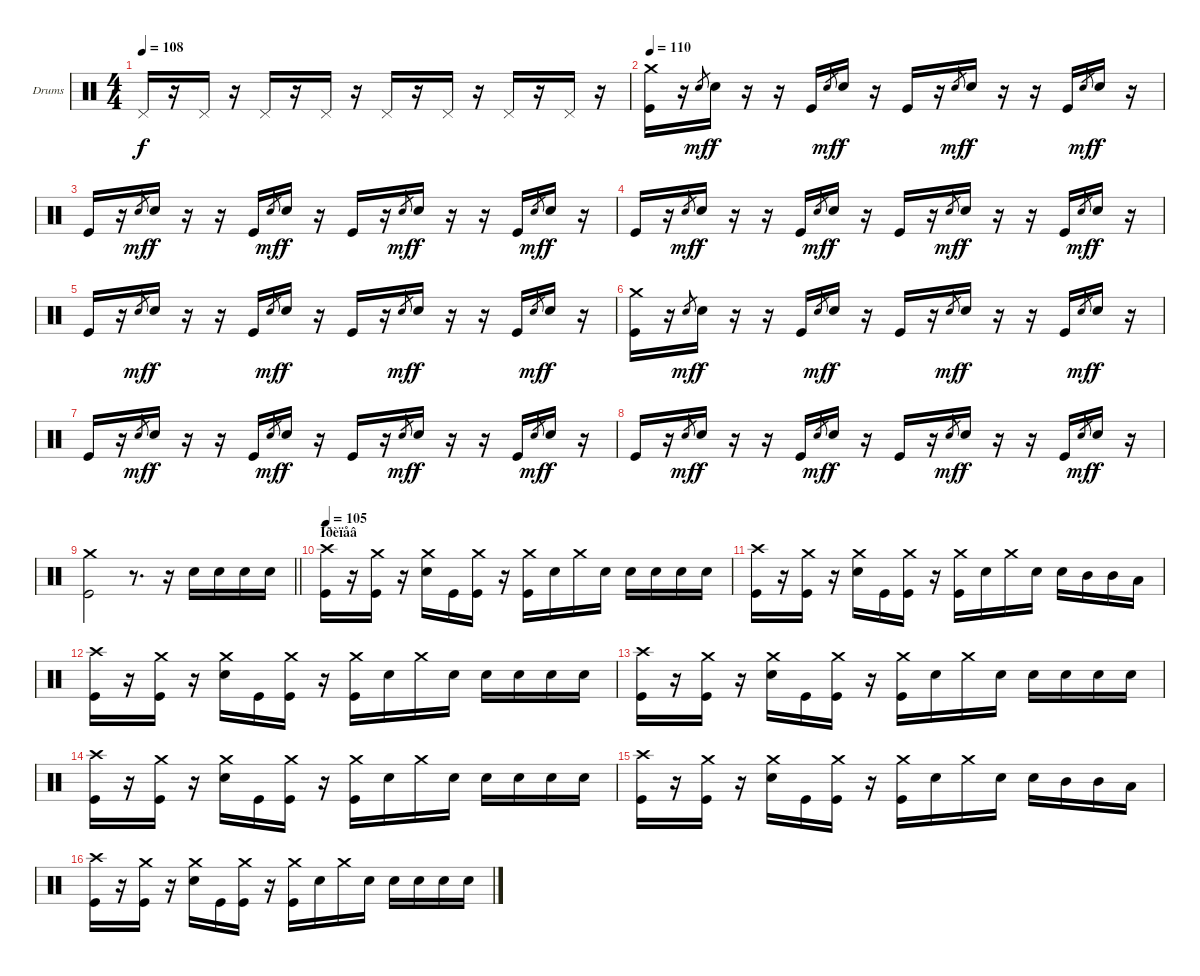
\bracketExtendMode groupsimilarinstruments
\firstSystemTrackNameOrientation horizontal
\otherSystemsTrackNameOrientation horizontal
\track ("Drumkit" "Drums") {instrument percussion}
\staff {score}
\articulation defaults
\ts (4 4)
\tempo 108
\clef neutral
\ks c "Pedal Hi-Hat (hit)".16{dy f}
r.16 "Pedal Hi-Hat (hit)".16 r.16 "Pedal Hi-Hat (hit)".16 r.16 "Pedal Hi-Hat (hit)".16 r.16 "Pedal Hi-Hat (hit)".16 r.16 "Pedal Hi-Hat (hit)".16 r.16 "Pedal Hi-Hat (hit)".16 r.16 "Pedal Hi-Hat (hit)".16 r.16 |
\tempo 110
("Crash medium (hit)" "Kick (hit)").16 r.16 "Snare (hit) 2".8{gr dy mf} "Snare (hit) 2".16{dy f} r.16 r.16 "Kick (hit)".16 "Snare (hit) 2".8{gr dy mf} "Snare (hit) 2".16{dy f} r.16 "Kick (hit)".16 r.16 "Snare (hit) 2".8{gr dy mf} "Snare (hit) 2".16{dy f} r.16 r.16 "Kick (hit)".16 "Snare (hit) 2".8{gr dy mf} "Snare (hit) 2".16{dy f} r.16 |
"Kick (hit)".16 r.16 "Snare (hit) 2".8{gr dy mf} "Snare (hit) 2".16{dy f} r.16 r.16 "Kick (hit)".16 "Snare (hit) 2".8{gr dy mf} "Snare (hit) 2".16{dy f} r.16 "Kick (hit)".16 r.16 "Snare (hit) 2".8{gr dy mf} "Snare (hit) 2".16{dy f} r.16 r.16 "Kick (hit)".16 "Snare (hit) 2".8{gr dy mf} "Snare (hit) 2".16{dy f} r.16 |
"Kick (hit)".16 r.16 "Snare (hit) 2".8{gr dy mf} "Snare (hit) 2".16{dy f} r.16 r.16 "Kick (hit)".16 "Snare (hit) 2".8{gr dy mf} "Snare (hit) 2".16{dy f} r.16 "Kick (hit)".16 r.16 "Snare (hit) 2".8{gr dy mf} "Snare (hit) 2".16{dy f} r.16 r.16 "Kick (hit)".16 "Snare (hit) 2".8{gr dy mf} "Snare (hit) 2".16{dy f} r.16 |
"Kick (hit)".16 r.16 "Snare (hit) 2".8{gr dy mf} "Snare (hit) 2".16{dy f} r.16 r.16 "Kick (hit)".16 "Snare (hit) 2".8{gr dy mf} "Snare (hit) 2".16{dy f} r.16 "Kick (hit)".16 r.16 "Snare (hit) 2".8{gr dy mf} "Snare (hit) 2".16{dy f} r.16 r.16 "Kick (hit)".16 "Snare (hit) 2".8{gr dy mf} "Snare (hit) 2".16{dy f} r.16 |
("Crash medium (hit)" "Kick (hit)").16 r.16 "Snare (hit) 2".8{gr dy mf} "Snare (hit) 2".16{dy f} r.16 r.16 "Kick (hit)".16 "Snare (hit) 2".8{gr dy mf} "Snare (hit) 2".16{dy f} r.16 "Kick (hit)".16 r.16 "Snare (hit) 2".8{gr dy mf} "Snare (hit) 2".16{dy f} r.16 r.16 "Kick (hit)".16 "Snare (hit) 2".8{gr dy mf} "Snare (hit) 2".16{dy f} r.16 |
"Kick (hit)".16 r.16 "Snare (hit) 2".8{gr dy mf} "Snare (hit) 2".16{dy f} r.16 r.16 "Kick (hit)".16 "Snare (hit) 2".8{gr dy mf} "Snare (hit) 2".16{dy f} r.16 "Kick (hit)".16 r.16 "Snare (hit) 2".8{gr dy mf} "Snare (hit) 2".16{dy f} r.16 r.16 "Kick (hit)".16 "Snare (hit) 2".8{gr dy mf} "Snare (hit) 2".16{dy f} r.16 |
"Kick (hit)".16 r.16 "Snare (hit) 2".8{gr dy mf} "Snare (hit) 2".16{dy f} r.16 r.16 "Kick (hit)".16 "Snare (hit) 2".8{gr dy mf} "Snare (hit) 2".16{dy f} r.16 "Kick (hit)".16 r.16 "Snare (hit) 2".8{gr dy mf} "Snare (hit) 2".16{dy f} r.16 r.16 "Kick (hit)".16 "Snare (hit) 2".8{gr dy mf} "Snare (hit) 2".16{dy f} r.16 |
\barLineRight lightlight
("Crash medium (hit)" "Kick (hit)").2 r.8{d} r.16 "Snare (hit) 2".16 "Snare (hit) 2".16 "Snare (hit) 2".16 "Snare (hit) 2".16 |
\section ("" "Ïðèïåâ")
\tempo 105
("Crash high (hit)" "Kick (hit)").16 r.16 ("Crash medium (hit)" "Kick (hit)").16 r.16 ("Crash medium (hit)" "Snare (hit) 2").16 "Kick (hit)".16 ("Crash medium (hit)" "Kick (hit)").16 r.16 ("Crash medium (hit)" "Kick (hit)").16 "Snare (hit) 2".16 "Crash medium (hit)".16 "Snare (hit) 2".16 "Snare (hit) 2".16 "Snare (hit) 2".16 "Snare (hit) 2".16 "Snare (hit) 2".16 |
("Crash high (hit)" "Kick (hit)").16 r.16 ("Crash medium (hit)" "Kick (hit)").16 r.16 ("Crash medium (hit)" "Snare (hit) 2").16 "Kick (hit)".16 ("Crash medium (hit)" "Kick (hit)").16 r.16 ("Crash medium (hit)" "Kick (hit)").16 "Snare (hit) 2".16 "Crash medium (hit)".16 "Snare (hit) 2".16 "Snare (hit) 2".16 "Mid Tom (hit)".16 "Mid Tom (hit)".16 "Low Tom (hit)".16 |
("Crash high (hit)" "Kick (hit)").16 r.16 ("Crash medium (hit)" "Kick (hit)").16 r.16 ("Crash medium (hit)" "Snare (hit) 2").16 "Kick (hit)".16 ("Crash medium (hit)" "Kick (hit)").16 r.16 ("Crash medium (hit)" "Kick (hit)").16 "Snare (hit) 2".16 "Crash medium (hit)".16 "Snare (hit) 2".16 "Snare (hit) 2".16 "Snare (hit) 2".16 "Snare (hit) 2".16 "Snare (hit) 2".16 |
("Crash high (hit)" "Kick (hit)").16 r.16 ("Crash medium (hit)" "Kick (hit)").16 r.16 ("Crash medium (hit)" "Snare (hit) 2").16 "Kick (hit)".16 ("Crash medium (hit)" "Kick (hit)").16 r.16 ("Crash medium (hit)" "Kick (hit)").16 "Snare (hit) 2".16 "Crash medium (hit)".16 "Snare (hit) 2".16 "Snare (hit) 2".16 "Snare (hit) 2".16 "Snare (hit) 2".16 "Snare (hit) 2".16 |
("Crash high (hit)" "Kick (hit)").16 r.16 ("Crash medium (hit)" "Kick (hit)").16 r.16 ("Crash medium (hit)" "Snare (hit) 2").16 "Kick (hit)".16 ("Crash medium (hit)" "Kick (hit)").16 r.16 ("Crash medium (hit)" "Kick (hit)").16 "Snare (hit) 2".16 "Crash medium (hit)".16 "Snare (hit) 2".16 "Snare (hit) 2".16 "Snare (hit) 2".16 "Snare (hit) 2".16 "Snare (hit) 2".16 |
("Crash high (hit)" "Kick (hit)").16 r.16 ("Crash medium (hit)" "Kick (hit)").16 r.16 ("Crash medium (hit)" "Snare (hit) 2").16 "Kick (hit)".16 ("Crash medium (hit)" "Kick (hit)").16 r.16 ("Crash medium (hit)" "Kick (hit)").16 "Snare (hit) 2".16 "Crash medium (hit)".16 "Snare (hit) 2".16 "Snare (hit) 2".16 "Mid Tom (hit)".16 "Mid Tom (hit)".16 "Low Tom (hit)".16 |
("Crash high (hit)" "Kick (hit)").16 r.16 ("Crash medium (hit)" "Kick (hit)").16 r.16 ("Crash medium (hit)" "Snare (hit) 2").16 "Kick (hit)".16 ("Crash medium (hit)" "Kick (hit)").16 r.16 ("Crash medium (hit)" "Kick (hit)").16 "Snare (hit) 2".16 "Crash medium (hit)".16 "Snare (hit) 2".16 "Snare (hit) 2".16 "Snare (hit) 2".16 "Snare (hit) 2".16 "Snare (hit) 2".16
